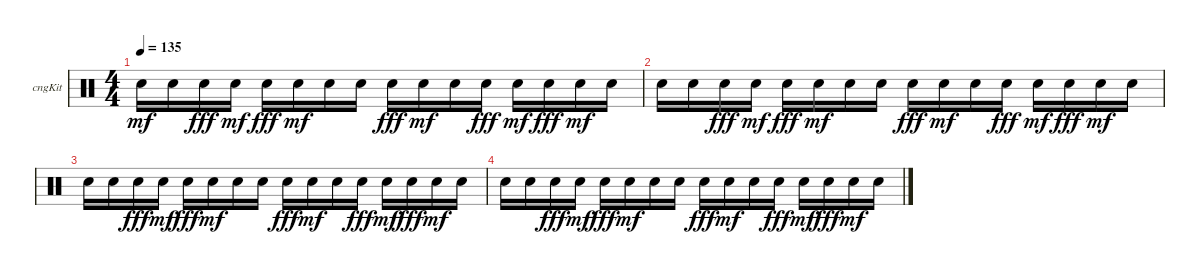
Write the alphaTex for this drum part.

\defaultSystemsLayout 4
\bracketExtendMode groupsimilarinstruments
\firstSystemTrackNameOrientation horizontal
\otherSystemsTrackNameOrientation horizontal
\track ("Congas" "cngKit") {instrument percussion}
\staff {score}
\articulation defaults
\ts (4 4)
\tempo 135
\clef neutral
\scale
0.333333
\ks c "Snare (hit) 2".16{dy mf} "Snare (hit) 2".16 "Snare (hit) 2".16{dy fff} "Snare (hit) 2".16{dy mf} "Snare (hit) 2".16{dy fff} "Snare (hit) 2".16{dy mf} "Snare (hit) 2".16 "Snare (hit) 2".16 "Snare (hit) 2".16{dy fff} "Snare (hit) 2".16{dy mf} "Snare (hit) 2".16 "Snare (hit) 2".16{dy fff} "Snare (hit) 2".16{dy mf} "Snare (hit) 2".16{dy fff} "Snare (hit) 2".16{dy mf} "Snare (hit) 2".16
|
\scale
0.333333 "Snare (hit) 2".16 "Snare (hit) 2".16 "Snare (hit) 2".16{dy fff} "Snare (hit) 2".16{dy mf} "Snare (hit) 2".16{dy fff} "Snare (hit) 2".16{dy mf} "Snare (hit) 2".16 "Snare (hit) 2".16 "Snare (hit) 2".16{dy fff} "Snare (hit) 2".16{dy mf} "Snare (hit) 2".16 "Snare (hit) 2".16{dy fff} "Snare (hit) 2".16{dy mf} "Snare (hit) 2".16{dy fff} "Snare (hit) 2".16{dy mf} "Snare (hit) 2".16 |
\scale
0.333333 "Snare (hit) 2".16 "Snare (hit) 2".16 "Snare (hit) 2".16{dy fff} "Snare (hit) 2".16{dy mf} "Snare (hit) 2".16{dy fff} "Snare (hit) 2".16{dy mf} "Snare (hit) 2".16 "Snare (hit) 2".16 "Snare (hit) 2".16{dy fff} "Snare (hit) 2".16{dy mf} "Snare (hit) 2".16 "Snare (hit) 2".16{dy fff} "Snare (hit) 2".16{dy mf} "Snare (hit) 2".16{dy fff} "Snare (hit) 2".16{dy mf} "Snare (hit) 2".16 |
\scale
0.333333 "Snare (hit) 2".16 "Snare (hit) 2".16 "Snare (hit) 2".16{dy fff} "Snare (hit) 2".16{dy mf} "Snare (hit) 2".16{dy fff} "Snare (hit) 2".16{dy mf} "Snare (hit) 2".16 "Snare (hit) 2".16 "Snare (hit) 2".16{dy fff} "Snare (hit) 2".16{dy mf} "Snare (hit) 2".16 "Snare (hit) 2".16{dy fff} "Snare (hit) 2".16{dy mf} "Snare (hit) 2".16{dy fff} "Snare (hit) 2".16{dy mf} "Snare (hit) 2".16 |
\scale
0.333333 |
\scale
0.333333 |
\scale
0.333333
